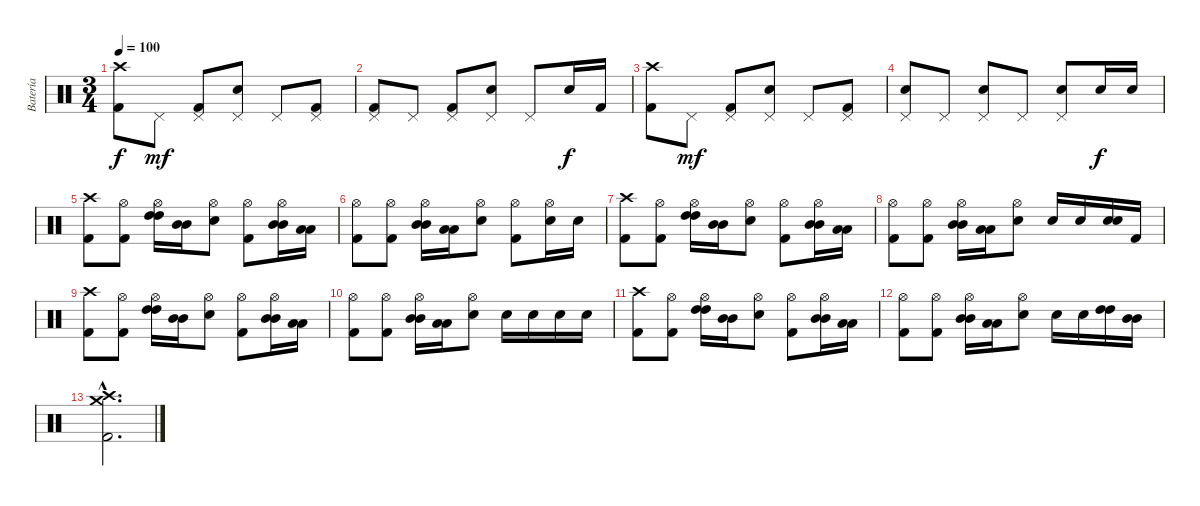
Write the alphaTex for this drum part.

\track ("Batería" "Batería") {instrument percussion}
\staff {score}
\articulation defaults
\ts (3 4)
\tempo 100
\clef neutral
\ks c
("Crash high (hit)" "Kick (hit) 2").8{dy f} "Pedal Hi-Hat (hit)".8{dy mf} ("Pedal Hi-Hat (hit)" "Kick (hit) 2").8 ("Pedal Hi-Hat (hit)" "Snare (hit) 2").8 "Pedal Hi-Hat (hit)".8 ("Pedal Hi-Hat (hit)" "Kick (hit) 2").8 |
("Pedal Hi-Hat (hit)" "Kick (hit) 2").8 "Pedal Hi-Hat (hit)".8 ("Pedal Hi-Hat (hit)" "Kick (hit) 2").8 ("Pedal Hi-Hat (hit)" "Snare (hit) 2").8 "Pedal Hi-Hat (hit)".8 "Snare (hit) 2".16{dy f} "Kick (hit) 2".16 |
("Crash high (hit)" "Kick (hit) 2").8 "Pedal Hi-Hat (hit)".8{dy mf} ("Pedal Hi-Hat (hit)" "Kick (hit) 2").8 ("Pedal Hi-Hat (hit)" "Snare (hit) 2").8 "Pedal Hi-Hat (hit)".8 ("Pedal Hi-Hat (hit)" "Kick (hit) 2").8 |
("Pedal Hi-Hat (hit)" "Snare (hit) 2").8 "Pedal Hi-Hat (hit)".8 ("Pedal Hi-Hat (hit)" "Snare (hit) 2").8 "Pedal Hi-Hat (hit)".8 ("Pedal Hi-Hat (hit)" "Snare (hit) 2").8 "Snare (hit) 2".16{dy f} "Snare (hit) 2".16 |
("Crash high (hit)" "Kick (hit) 2").8 ("Hi-Hat (open)" "Kick (hit) 2").8 ("Hi-Hat (open)" "High Tom (hit)" "High Tom (hit)").16 ("Mid Tom (hit)" "Mid Tom (hit)").16 ("Hi-Hat (open)" "Snare (hit) 2").8 ("Hi-Hat (open)" "Kick (hit) 2").8 ("Hi-Hat (open)" "Mid Tom (hit)" "Mid Tom (hit)").16 ("Low Tom (hit)" "Low Tom (hit)").16 |
("Hi-Hat (open)" "Kick (hit) 2").8 ("Hi-Hat (open)" "Kick (hit) 2").8 ("Hi-Hat (open)" "Mid Tom (hit)" "Mid Tom (hit)").16 ("Low Tom (hit)" "Low Tom (hit)").16 ("Hi-Hat (open)" "Snare (hit) 2").8 ("Hi-Hat (open)" "Kick (hit) 2").8 ("Hi-Hat (open)" "Snare (hit) 2").16 "Snare (hit) 2".16 |
("Crash high (hit)" "Kick (hit) 2").8 ("Hi-Hat (open)" "Kick (hit) 2").8 ("Hi-Hat (open)" "High Tom (hit)" "High Tom (hit)").16 ("Mid Tom (hit)" "Mid Tom (hit)").16 ("Hi-Hat (open)" "Snare (hit) 2").8 ("Hi-Hat (open)" "Kick (hit) 2").8 ("Hi-Hat (open)" "Mid Tom (hit)" "Mid Tom (hit)").16 ("Low Tom (hit)" "Low Tom (hit)").16 |
("Hi-Hat (open)" "Kick (hit) 2").8 ("Hi-Hat (open)" "Kick (hit) 2").8 ("Hi-Hat (open)" "Mid Tom (hit)" "Mid Tom (hit)").16 ("Low Tom (hit)" "Low Tom (hit)").16 ("Hi-Hat (open)" "Snare (hit) 2").8 "Snare (hit) 2".16 "Snare (hit) 2".16 ("Snare (hit) 2" "Snare (hit) 2").16{bd 60} "Kick (hit) 2".16 |
("Crash high (hit)" "Kick (hit) 2").8 ("Hi-Hat (open)" "Kick (hit) 2").8 ("Hi-Hat (open)" "High Tom (hit)" "High Tom (hit)").16 ("Mid Tom (hit)" "Mid Tom (hit)").16 ("Hi-Hat (open)" "Snare (hit) 2").8 ("Hi-Hat (open)" "Kick (hit) 2").8 ("Hi-Hat (open)" "Mid Tom (hit)" "Mid Tom (hit)").16 ("Low Tom (hit)" "Low Tom (hit)").16 |
("Hi-Hat (open)" "Kick (hit) 2").8 ("Hi-Hat (open)" "Kick (hit) 2").8 ("Hi-Hat (open)" "Mid Tom (hit)" "Mid Tom (hit)").16 ("Low Tom (hit)" "Low Tom (hit)").16 ("Hi-Hat (open)" "Snare (hit) 2").8 "Snare (hit) 2".16 "Snare (hit) 2".16 "Snare (hit) 2".16 "Snare (hit) 2".16 |
("Crash high (hit)" "Kick (hit) 2").8 ("Hi-Hat (open)" "Kick (hit) 2").8 ("Hi-Hat (open)" "High Tom (hit)" "High Tom (hit)").16 ("Mid Tom (hit)" "Mid Tom (hit)").16 ("Hi-Hat (open)" "Snare (hit) 2").8 ("Hi-Hat (open)" "Kick (hit) 2").8 ("Hi-Hat (open)" "Mid Tom (hit)" "Mid Tom (hit)").16 ("Low Tom (hit)" "Low Tom (hit)").16 |
("Hi-Hat (open)" "Kick (hit) 2").8 ("Hi-Hat (open)" "Kick (hit) 2").8 ("Hi-Hat (open)" "Mid Tom (hit)" "Mid Tom (hit)").16 ("Low Tom (hit)" "Low Tom (hit)").16 ("Hi-Hat (open)" "Snare (hit) 2").8 "Snare (hit) 2".16 "Snare (hit) 2".16 ("High Tom (hit)" "High Tom (hit)").16 ("Mid Tom (hit)" "Mid Tom (hit)").16 |
("Crash high (hit)"{hac} "Crash medium (hit)"{hac} "Kick (hit) 2"{hac}).2{d}
